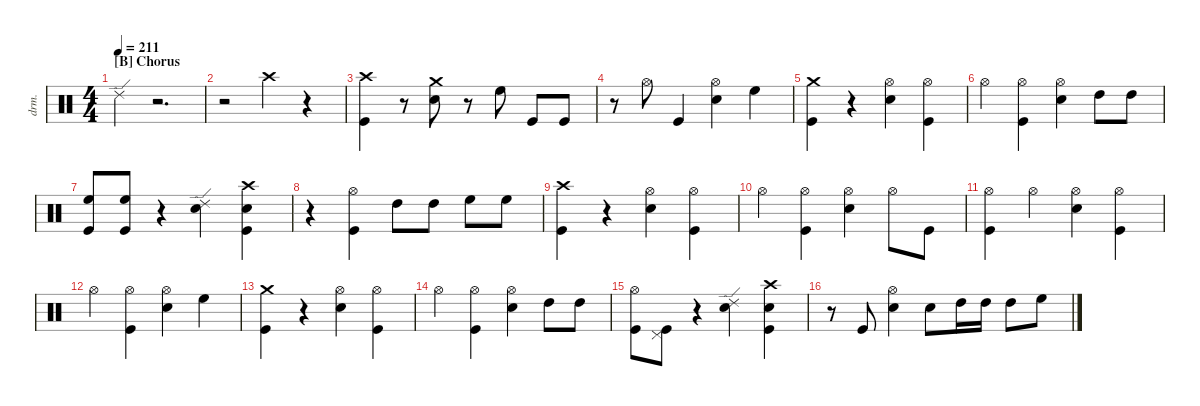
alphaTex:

\defaultSystemsLayout 4
\hideDynamics
\bracketExtendMode nobrackets
\track ("Drums" "drm.") {instrument percussion}
\staff {score}
\articulation defaults
\ts (4 4)
\section ("B" "Chorus")
\tempo 211
\clef neutral
\ks c "Ride (edge) 2".4{dy ff}
r.2{d} |
r.2 "Crash high (hit)"{acc #}.4{dy fff} r.4 |
("Kick (hit)" "Crash high (hit)"{acc #}).4 r.8 ("Snare (hit) 2" "Crash medium (hit)").8{dy ff} r.8 "High Floor Tom (hit)".8 "Kick (hit)".8{dy mf} "Kick (hit)".8{dy fff} |
r.8 "Hi-Hat (open)"{acc #}.8{dy ff} "Kick (hit)".4 ("Snare (hit) 2" "Hi-Hat (open)"{acc #}).4 "High Floor Tom (hit)".4 |
("Kick (hit)" "Crash medium (hit)").4{dy fff} r.4 ("Snare (hit) 2" "Hi-Hat (open)"{acc #}).4{dy ff} ("Kick (hit)" "Hi-Hat (open)"{acc #}).4 |
"Hi-Hat (open)"{acc #}.4{dy fff} ("Kick (hit)" "Hi-Hat (open)"{acc #}).4{dy ff} ("Snare (hit) 2" "Hi-Hat (open)"{acc #}).4 "High Tom (hit)".8 "High Tom (hit)".8{dy mf} |
("Kick (hit)" "High Floor Tom (hit)").8{dy ff} ("Kick (hit)" "High Floor Tom (hit)").8{dy fff} r.4 ("Snare (hit) 2" "Ride (edge) 2").4{dy f} ("Kick (hit)" "Snare (hit) 2" "Crash high (hit)"{acc #}).4{dy ff} |
r.4 ("Kick (hit)" "Hi-Hat (open)"{acc #}).4{dy fff} "High Tom (hit)".8{dy ff} "High Tom (hit)".8{dy mf} "High Floor Tom (hit)".8{dy f} "High Floor Tom (hit)".8{dy mf} |
("Kick (hit)" "Crash high (hit)"{acc #}).4{dy fff} r.4 ("Snare (hit) 2" "Hi-Hat (open)"{acc #}).4{dy ff} ("Kick (hit)" "Hi-Hat (open)"{acc #}).4 |
"Hi-Hat (open)"{acc #}.4{dy fff} ("Kick (hit)" "Hi-Hat (open)"{acc #}).4{dy ff} ("Snare (hit) 2" "Hi-Hat (open)"{acc #}).4 "Hi-Hat (open)"{acc #}.8{dy mf} "Kick (hit)".8 |
("Kick (hit)" "Hi-Hat (open)"{acc #}).4{dy fff} "Hi-Hat (open)"{acc #}.4{dy mf} ("Snare (hit) 2" "Hi-Hat (open)"{acc #}).4{dy ff} ("Kick (hit)" "Hi-Hat (open)"{acc #}).4 |
"Hi-Hat (open)"{acc #}.4{dy fff} ("Kick (hit)" "Hi-Hat (open)"{acc #}).4{dy ff} ("Snare (hit) 2" "Hi-Hat (open)"{acc #}).4 "High Floor Tom (hit)".4 |
("Kick (hit)" "Crash medium (hit)").4{dy fff} r.4 ("Snare (hit) 2" "Hi-Hat (open)"{acc #}).4{dy ff} ("Kick (hit)" "Hi-Hat (open)"{acc #}).4 |
"Hi-Hat (open)"{acc #}.4{dy fff} ("Kick (hit)" "Hi-Hat (open)"{acc #}).4{dy ff} ("Snare (hit) 2" "Hi-Hat (open)"{acc #}).4 "High Tom (hit)".8 "High Tom (hit)".8{dy mf} |
("Kick (hit)" "Hi-Hat (open)"{acc #}).8{dy ff} ("Kick (hit)" "Pedal Hi-Hat (hit)"{acc #}).8{dy fff} r.4 ("Snare (hit) 2" "Ride (edge) 2").4{dy f} ("Kick (hit)" "Snare (hit) 2" "Crash high (hit)"{acc #}).4{dy ff} |
r.8 "Kick (hit)".8{dy mf} ("Snare (hit) 2" "Hi-Hat (open)"{acc #}).4{dy fff} "Snare (hit) 2".8 "High Tom (hit)".16{dy ff} "High Tom (hit)".16{dy pp} "High Tom (hit)".8{dy f} "High Floor Tom (hit)".8{dy mp}
